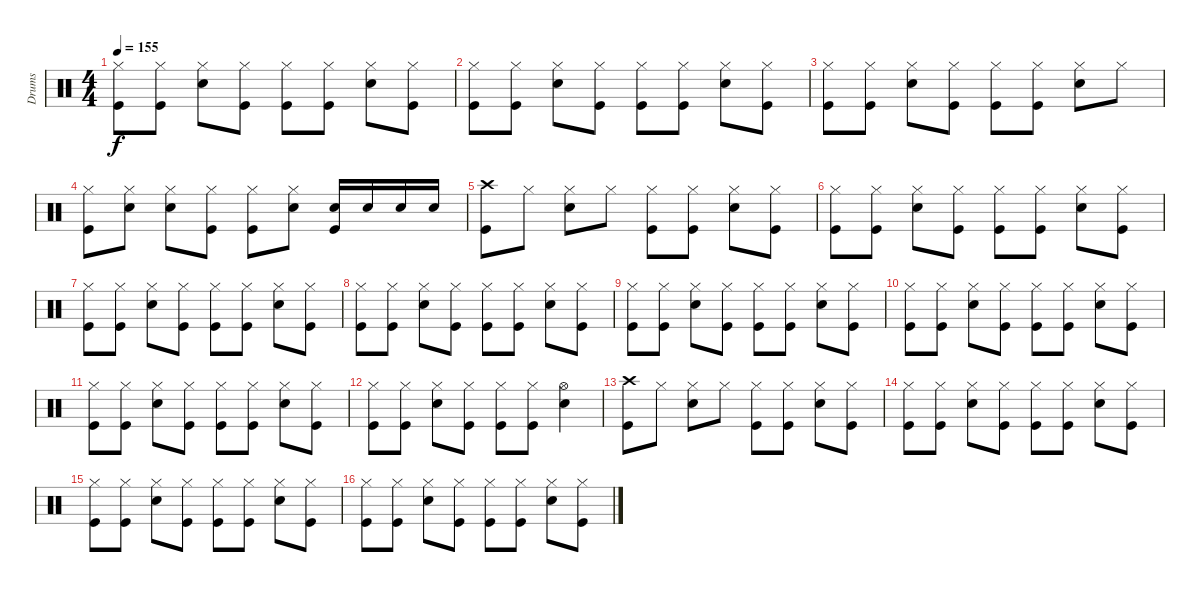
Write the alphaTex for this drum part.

\track ("Drums" "Drums") {instrument percussion}
\staff {score}
\articulation defaults
\ts (4 4)
\tempo 155
\clef neutral
\ks c
("Hi-Hat (closed)" "Kick (hit)").8{dy f} ("Hi-Hat (closed)" "Kick (hit)").8 ("Hi-Hat (closed)" "Snare (hit) 2").8 ("Hi-Hat (closed)" "Kick (hit)").8 ("Hi-Hat (closed)" "Kick (hit)").8 ("Hi-Hat (closed)" "Kick (hit)").8 ("Hi-Hat (closed)" "Snare (hit) 2").8 ("Hi-Hat (closed)" "Kick (hit)").8 |
("Hi-Hat (closed)" "Kick (hit)").8 ("Hi-Hat (closed)" "Kick (hit)").8 ("Hi-Hat (closed)" "Snare (hit) 2").8 ("Hi-Hat (closed)" "Kick (hit)").8 ("Hi-Hat (closed)" "Kick (hit)").8 ("Hi-Hat (closed)" "Kick (hit)").8 ("Hi-Hat (closed)" "Snare (hit) 2").8 ("Hi-Hat (closed)" "Kick (hit)").8 |
("Hi-Hat (closed)" "Kick (hit)").8 ("Hi-Hat (closed)" "Kick (hit)").8 ("Hi-Hat (closed)" "Snare (hit) 2").8 ("Hi-Hat (closed)" "Kick (hit)").8 ("Hi-Hat (closed)" "Kick (hit)").8 ("Hi-Hat (closed)" "Kick (hit)").8 ("Hi-Hat (closed)" "Snare (hit) 2").8 "Hi-Hat (closed)".8 |
("Hi-Hat (closed)" "Kick (hit)").8 ("Hi-Hat (closed)" "Snare (hit) 2").8 ("Hi-Hat (closed)" "Snare (hit) 2").8 ("Hi-Hat (closed)" "Kick (hit)").8 ("Hi-Hat (closed)" "Kick (hit)").8 ("Hi-Hat (closed)" "Snare (hit) 2").8 ("Snare (hit) 2" "Kick (hit)").16 "Snare (hit) 2".16 "Snare (hit) 2".16 "Snare (hit) 2".16 |
("Crash high (hit)" "Kick (hit)").8 "Hi-Hat (closed)".8 ("Hi-Hat (closed)" "Snare (hit) 2").8 "Hi-Hat (closed)".8 ("Hi-Hat (closed)" "Kick (hit)").8 ("Hi-Hat (closed)" "Kick (hit)").8 ("Hi-Hat (closed)" "Snare (hit) 2").8 ("Hi-Hat (closed)" "Kick (hit)").8 |
("Hi-Hat (closed)" "Kick (hit)").8 ("Hi-Hat (closed)" "Kick (hit)").8 ("Hi-Hat (closed)" "Snare (hit) 2").8 ("Hi-Hat (closed)" "Kick (hit)").8 ("Hi-Hat (closed)" "Kick (hit)").8 ("Hi-Hat (closed)" "Kick (hit)").8 ("Hi-Hat (closed)" "Snare (hit) 2").8 ("Hi-Hat (closed)" "Kick (hit)").8 |
("Hi-Hat (closed)" "Kick (hit)").8 ("Hi-Hat (closed)" "Kick (hit)").8 ("Hi-Hat (closed)" "Snare (hit) 2").8 ("Hi-Hat (closed)" "Kick (hit)").8 ("Hi-Hat (closed)" "Kick (hit)").8 ("Hi-Hat (closed)" "Kick (hit)").8 ("Hi-Hat (closed)" "Snare (hit) 2").8 ("Hi-Hat (closed)" "Kick (hit)").8 |
("Hi-Hat (closed)" "Kick (hit)").8 ("Hi-Hat (closed)" "Kick (hit)").8 ("Hi-Hat (closed)" "Snare (hit) 2").8 ("Hi-Hat (closed)" "Kick (hit)").8 ("Hi-Hat (closed)" "Kick (hit)").8 ("Hi-Hat (closed)" "Kick (hit)").8 ("Hi-Hat (closed)" "Snare (hit) 2").8 ("Hi-Hat (closed)" "Kick (hit)").8 |
("Hi-Hat (closed)" "Kick (hit)").8 ("Hi-Hat (closed)" "Kick (hit)").8 ("Hi-Hat (closed)" "Snare (hit) 2").8 ("Hi-Hat (closed)" "Kick (hit)").8 ("Hi-Hat (closed)" "Kick (hit)").8 ("Hi-Hat (closed)" "Kick (hit)").8 ("Hi-Hat (closed)" "Snare (hit) 2").8 ("Hi-Hat (closed)" "Kick (hit)").8 |
("Hi-Hat (closed)" "Kick (hit)").8 ("Hi-Hat (closed)" "Kick (hit)").8 ("Hi-Hat (closed)" "Snare (hit) 2").8 ("Hi-Hat (closed)" "Kick (hit)").8 ("Hi-Hat (closed)" "Kick (hit)").8 ("Hi-Hat (closed)" "Kick (hit)").8 ("Hi-Hat (closed)" "Snare (hit) 2").8 ("Hi-Hat (closed)" "Kick (hit)").8 |
("Hi-Hat (closed)" "Kick (hit)").8 ("Hi-Hat (closed)" "Kick (hit)").8 ("Hi-Hat (closed)" "Snare (hit) 2").8 ("Hi-Hat (closed)" "Kick (hit)").8 ("Hi-Hat (closed)" "Kick (hit)").8 ("Hi-Hat (closed)" "Kick (hit)").8 ("Hi-Hat (closed)" "Snare (hit) 2").8 ("Hi-Hat (closed)" "Kick (hit)").8 |
("Hi-Hat (closed)" "Kick (hit)").8 ("Hi-Hat (closed)" "Kick (hit)").8 ("Hi-Hat (closed)" "Snare (hit) 2").8 ("Hi-Hat (closed)" "Kick (hit)").8 ("Hi-Hat (closed)" "Kick (hit)").8 ("Hi-Hat (closed)" "Kick (hit)").8 ("Hi-Hat (open)" "Snare (hit) 2").4 |
("Crash high (hit)" "Kick (hit)").8 "Hi-Hat (closed)".8 ("Hi-Hat (closed)" "Snare (hit) 2").8 "Hi-Hat (closed)".8 ("Hi-Hat (closed)" "Kick (hit)").8 ("Hi-Hat (closed)" "Kick (hit)").8 ("Hi-Hat (closed)" "Snare (hit) 2").8 ("Hi-Hat (closed)" "Kick (hit)").8 |
("Hi-Hat (closed)" "Kick (hit)").8 ("Hi-Hat (closed)" "Kick (hit)").8 ("Hi-Hat (closed)" "Snare (hit) 2").8 ("Hi-Hat (closed)" "Kick (hit)").8 ("Hi-Hat (closed)" "Kick (hit)").8 ("Hi-Hat (closed)" "Kick (hit)").8 ("Hi-Hat (closed)" "Snare (hit) 2").8 ("Hi-Hat (closed)" "Kick (hit)").8 |
("Hi-Hat (closed)" "Kick (hit)").8 ("Hi-Hat (closed)" "Kick (hit)").8 ("Hi-Hat (closed)" "Snare (hit) 2").8 ("Hi-Hat (closed)" "Kick (hit)").8 ("Hi-Hat (closed)" "Kick (hit)").8 ("Hi-Hat (closed)" "Kick (hit)").8 ("Hi-Hat (closed)" "Snare (hit) 2").8 ("Hi-Hat (closed)" "Kick (hit)").8 |
("Hi-Hat (closed)" "Kick (hit)").8 ("Hi-Hat (closed)" "Kick (hit)").8 ("Hi-Hat (closed)" "Snare (hit) 2").8 ("Hi-Hat (closed)" "Kick (hit)").8 ("Hi-Hat (closed)" "Kick (hit)").8 ("Hi-Hat (closed)" "Kick (hit)").8 ("Hi-Hat (closed)" "Snare (hit) 2").8 ("Hi-Hat (closed)" "Kick (hit)").8
